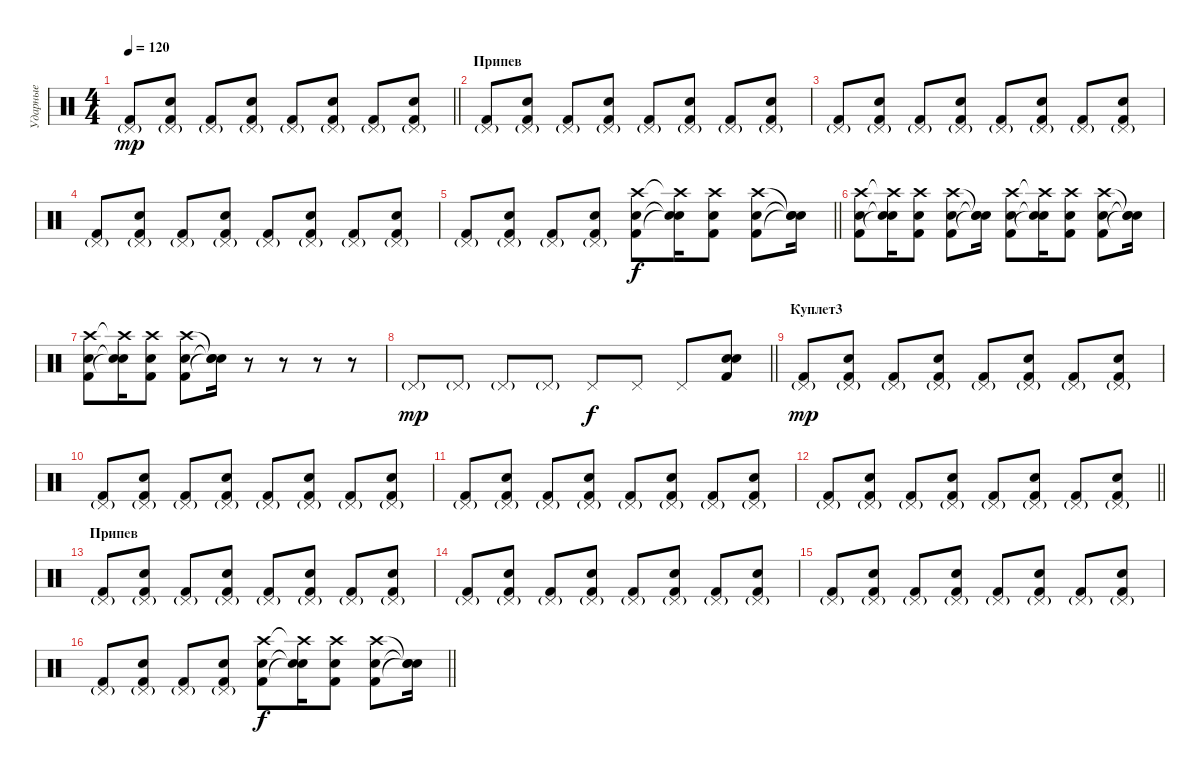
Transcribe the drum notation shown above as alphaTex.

\track ("Ударные" "Ударные") {instrument percussion}
\staff {score}
\articulation defaults
\ts (4 4)
\tempo 120
\clef neutral
\barLineRight lightlight
\ks c
("Pedal Hi-Hat (hit)"{g} "Kick (hit) 2").8{dy mp} ("Pedal Hi-Hat (hit)"{g} "Electric Snare (hit)" "Kick (hit) 2").8 ("Pedal Hi-Hat (hit)"{g} "Kick (hit) 2").8 ("Pedal Hi-Hat (hit)"{g} "Electric Snare (hit)" "Kick (hit) 2").8 ("Pedal Hi-Hat (hit)"{g} "Kick (hit) 2").8 ("Pedal Hi-Hat (hit)"{g} "Electric Snare (hit)" "Kick (hit) 2").8 ("Pedal Hi-Hat (hit)"{g} "Kick (hit) 2").8 ("Pedal Hi-Hat (hit)"{g} "Electric Snare (hit)" "Kick (hit) 2").8 |
\section ("" "Припев")
("Pedal Hi-Hat (hit)"{g} "Kick (hit) 2").8 ("Pedal Hi-Hat (hit)"{g} "Electric Snare (hit)" "Kick (hit) 2").8 ("Pedal Hi-Hat (hit)"{g} "Kick (hit) 2").8 ("Pedal Hi-Hat (hit)"{g} "Electric Snare (hit)" "Kick (hit) 2").8 ("Pedal Hi-Hat (hit)"{g} "Kick (hit) 2").8 ("Pedal Hi-Hat (hit)"{g} "Electric Snare (hit)" "Kick (hit) 2").8 ("Pedal Hi-Hat (hit)"{g} "Kick (hit) 2").8 ("Pedal Hi-Hat (hit)"{g} "Electric Snare (hit)" "Kick (hit) 2").8 |
("Pedal Hi-Hat (hit)"{g} "Kick (hit) 2").8 ("Pedal Hi-Hat (hit)"{g} "Electric Snare (hit)" "Kick (hit) 2").8 ("Pedal Hi-Hat (hit)"{g} "Kick (hit) 2").8 ("Pedal Hi-Hat (hit)"{g} "Electric Snare (hit)" "Kick (hit) 2").8 ("Pedal Hi-Hat (hit)"{g} "Kick (hit) 2").8 ("Pedal Hi-Hat (hit)"{g} "Electric Snare (hit)" "Kick (hit) 2").8 ("Pedal Hi-Hat (hit)"{g} "Kick (hit) 2").8 ("Pedal Hi-Hat (hit)"{g} "Electric Snare (hit)" "Kick (hit) 2").8 |
("Pedal Hi-Hat (hit)"{g} "Kick (hit) 2").8 ("Pedal Hi-Hat (hit)"{g} "Electric Snare (hit)" "Kick (hit) 2").8 ("Pedal Hi-Hat (hit)"{g} "Kick (hit) 2").8 ("Pedal Hi-Hat (hit)"{g} "Electric Snare (hit)" "Kick (hit) 2").8 ("Pedal Hi-Hat (hit)"{g} "Kick (hit) 2").8 ("Pedal Hi-Hat (hit)"{g} "Electric Snare (hit)" "Kick (hit) 2").8 ("Pedal Hi-Hat (hit)"{g} "Kick (hit) 2").8 ("Pedal Hi-Hat (hit)"{g} "Electric Snare (hit)" "Kick (hit) 2").8 |
\barLineRight lightlight
("Pedal Hi-Hat (hit)"{g} "Kick (hit) 2").8 ("Pedal Hi-Hat (hit)"{g} "Electric Snare (hit)" "Kick (hit) 2").8 ("Pedal Hi-Hat (hit)"{g} "Kick (hit) 2").8 ("Pedal Hi-Hat (hit)"{g} "Electric Snare (hit)" "Kick (hit) 2").8 ("Crash high (hit)" "Kick (hit) 2" "Electric Snare (hit)").8{dy f} ("Crash high (hit)"{t} "Snare (hit)"{t} "Snare (hit)"{t}).16 ("Crash high (hit)" "Kick (hit) 2" "Electric Snare (hit)").8 ("Crash high (hit)" "Kick (hit) 2" "Electric Snare (hit)").8 ("Snare (hit)"{t} "Snare (hit)"{t} "Snare (hit)"{t}).16 |
("Crash high (hit)" "Kick (hit) 2" "Electric Snare (hit)").8 ("Crash high (hit)"{t} "Snare (hit)"{t} "Snare (hit)"{t}).16 ("Crash high (hit)" "Kick (hit) 2" "Electric Snare (hit)").8 ("Crash high (hit)" "Kick (hit) 2" "Electric Snare (hit)").8 ("Snare (hit)"{t} "Snare (hit)"{t} "Snare (hit)"{t}).16 ("Crash high (hit)" "Kick (hit) 2" "Electric Snare (hit)").8 ("Crash high (hit)"{t} "Snare (hit)"{t} "Snare (hit)"{t}).16 ("Crash high (hit)" "Kick (hit) 2" "Electric Snare (hit)").8 ("Crash high (hit)" "Kick (hit) 2" "Electric Snare (hit)").8 ("Snare (hit)"{t} "Snare (hit)"{t} "Snare (hit)"{t}).16 |
("Crash high (hit)" "Kick (hit) 2" "Electric Snare (hit)").8 ("Crash high (hit)"{t} "Snare (hit)"{t} "Snare (hit)"{t}).16 ("Crash high (hit)" "Kick (hit) 2" "Electric Snare (hit)").8 ("Crash high (hit)" "Kick (hit) 2" "Electric Snare (hit)").8 ("Snare (hit)"{t} "Snare (hit)"{t} "Snare (hit)"{t}).16 r.8 r.8 r.8 r.8 |
\barLineRight lightlight "Pedal Hi-Hat (hit)"{g}.8{dy mp} "Pedal Hi-Hat (hit)"{g}.8 "Pedal Hi-Hat (hit)"{g}.8 "Pedal Hi-Hat (hit)"{g}.8 "Pedal Hi-Hat (hit)".8{dy f} "Pedal Hi-Hat (hit)".8 "Pedal Hi-Hat (hit)".8
("Snare (hit) 2" "Kick (hit) 2" "Electric Snare (hit)").8 |
\section ("" "Куплет3")
("Pedal Hi-Hat (hit)"{g} "Kick (hit) 2").8{dy mp} ("Pedal Hi-Hat (hit)"{g} "Electric Snare (hit)" "Kick (hit) 2").8 ("Pedal Hi-Hat (hit)"{g} "Kick (hit) 2").8 ("Pedal Hi-Hat (hit)"{g} "Electric Snare (hit)" "Kick (hit) 2").8 ("Pedal Hi-Hat (hit)"{g} "Kick (hit) 2").8 ("Pedal Hi-Hat (hit)"{g} "Electric Snare (hit)" "Kick (hit) 2").8 ("Pedal Hi-Hat (hit)"{g} "Kick (hit) 2").8 ("Pedal Hi-Hat (hit)"{g} "Electric Snare (hit)" "Kick (hit) 2").8 |
("Pedal Hi-Hat (hit)"{g} "Kick (hit) 2").8 ("Pedal Hi-Hat (hit)"{g} "Electric Snare (hit)" "Kick (hit) 2").8 ("Pedal Hi-Hat (hit)"{g} "Kick (hit) 2").8 ("Pedal Hi-Hat (hit)"{g} "Electric Snare (hit)" "Kick (hit) 2").8 ("Pedal Hi-Hat (hit)"{g} "Kick (hit) 2").8 ("Pedal Hi-Hat (hit)"{g} "Electric Snare (hit)" "Kick (hit) 2").8 ("Pedal Hi-Hat (hit)"{g} "Kick (hit) 2").8 ("Pedal Hi-Hat (hit)"{g} "Electric Snare (hit)" "Kick (hit) 2").8 |
("Pedal Hi-Hat (hit)"{g} "Kick (hit) 2").8 ("Pedal Hi-Hat (hit)"{g} "Electric Snare (hit)" "Kick (hit) 2").8 ("Pedal Hi-Hat (hit)"{g} "Kick (hit) 2").8 ("Pedal Hi-Hat (hit)"{g} "Electric Snare (hit)" "Kick (hit) 2").8 ("Pedal Hi-Hat (hit)"{g} "Kick (hit) 2").8 ("Pedal Hi-Hat (hit)"{g} "Electric Snare (hit)" "Kick (hit) 2").8 ("Pedal Hi-Hat (hit)"{g} "Kick (hit) 2").8 ("Pedal Hi-Hat (hit)"{g} "Electric Snare (hit)" "Kick (hit) 2").8 |
\barLineRight lightlight
("Pedal Hi-Hat (hit)"{g} "Kick (hit) 2").8 ("Pedal Hi-Hat (hit)"{g} "Electric Snare (hit)" "Kick (hit) 2").8 ("Pedal Hi-Hat (hit)"{g} "Kick (hit) 2").8 ("Pedal Hi-Hat (hit)"{g} "Electric Snare (hit)" "Kick (hit) 2").8 ("Pedal Hi-Hat (hit)"{g} "Kick (hit) 2").8 ("Pedal Hi-Hat (hit)"{g} "Electric Snare (hit)" "Kick (hit) 2").8 ("Pedal Hi-Hat (hit)"{g} "Kick (hit) 2").8 ("Pedal Hi-Hat (hit)"{g} "Electric Snare (hit)" "Kick (hit) 2").8 |
\section ("" "Припев")
("Pedal Hi-Hat (hit)"{g} "Kick (hit) 2").8 ("Pedal Hi-Hat (hit)"{g} "Electric Snare (hit)" "Kick (hit) 2").8 ("Pedal Hi-Hat (hit)"{g} "Kick (hit) 2").8 ("Pedal Hi-Hat (hit)"{g} "Electric Snare (hit)" "Kick (hit) 2").8 ("Pedal Hi-Hat (hit)"{g} "Kick (hit) 2").8 ("Pedal Hi-Hat (hit)"{g} "Electric Snare (hit)" "Kick (hit) 2").8 ("Pedal Hi-Hat (hit)"{g} "Kick (hit) 2").8 ("Pedal Hi-Hat (hit)"{g} "Electric Snare (hit)" "Kick (hit) 2").8 |
("Pedal Hi-Hat (hit)"{g} "Kick (hit) 2").8 ("Pedal Hi-Hat (hit)"{g} "Electric Snare (hit)" "Kick (hit) 2").8 ("Pedal Hi-Hat (hit)"{g} "Kick (hit) 2").8 ("Pedal Hi-Hat (hit)"{g} "Electric Snare (hit)" "Kick (hit) 2").8 ("Pedal Hi-Hat (hit)"{g} "Kick (hit) 2").8 ("Pedal Hi-Hat (hit)"{g} "Electric Snare (hit)" "Kick (hit) 2").8 ("Pedal Hi-Hat (hit)"{g} "Kick (hit) 2").8 ("Pedal Hi-Hat (hit)"{g} "Electric Snare (hit)" "Kick (hit) 2").8 |
("Pedal Hi-Hat (hit)"{g} "Kick (hit) 2").8 ("Pedal Hi-Hat (hit)"{g} "Electric Snare (hit)" "Kick (hit) 2").8 ("Pedal Hi-Hat (hit)"{g} "Kick (hit) 2").8 ("Pedal Hi-Hat (hit)"{g} "Electric Snare (hit)" "Kick (hit) 2").8 ("Pedal Hi-Hat (hit)"{g} "Kick (hit) 2").8 ("Pedal Hi-Hat (hit)"{g} "Electric Snare (hit)" "Kick (hit) 2").8 ("Pedal Hi-Hat (hit)"{g} "Kick (hit) 2").8 ("Pedal Hi-Hat (hit)"{g} "Electric Snare (hit)" "Kick (hit) 2").8 |
\barLineRight lightlight
("Pedal Hi-Hat (hit)"{g} "Kick (hit) 2").8 ("Pedal Hi-Hat (hit)"{g} "Electric Snare (hit)" "Kick (hit) 2").8 ("Pedal Hi-Hat (hit)"{g} "Kick (hit) 2").8 ("Pedal Hi-Hat (hit)"{g} "Electric Snare (hit)" "Kick (hit) 2").8 ("Crash high (hit)" "Kick (hit) 2" "Electric Snare (hit)").8{dy f} ("Crash high (hit)"{t} "Snare (hit)"{t} "Snare (hit)"{t}).16 ("Crash high (hit)" "Kick (hit) 2" "Electric Snare (hit)").8 ("Crash high (hit)" "Kick (hit) 2" "Electric Snare (hit)").8 ("Snare (hit)"{t} "Snare (hit)"{t} "Snare (hit)"{t}).16
